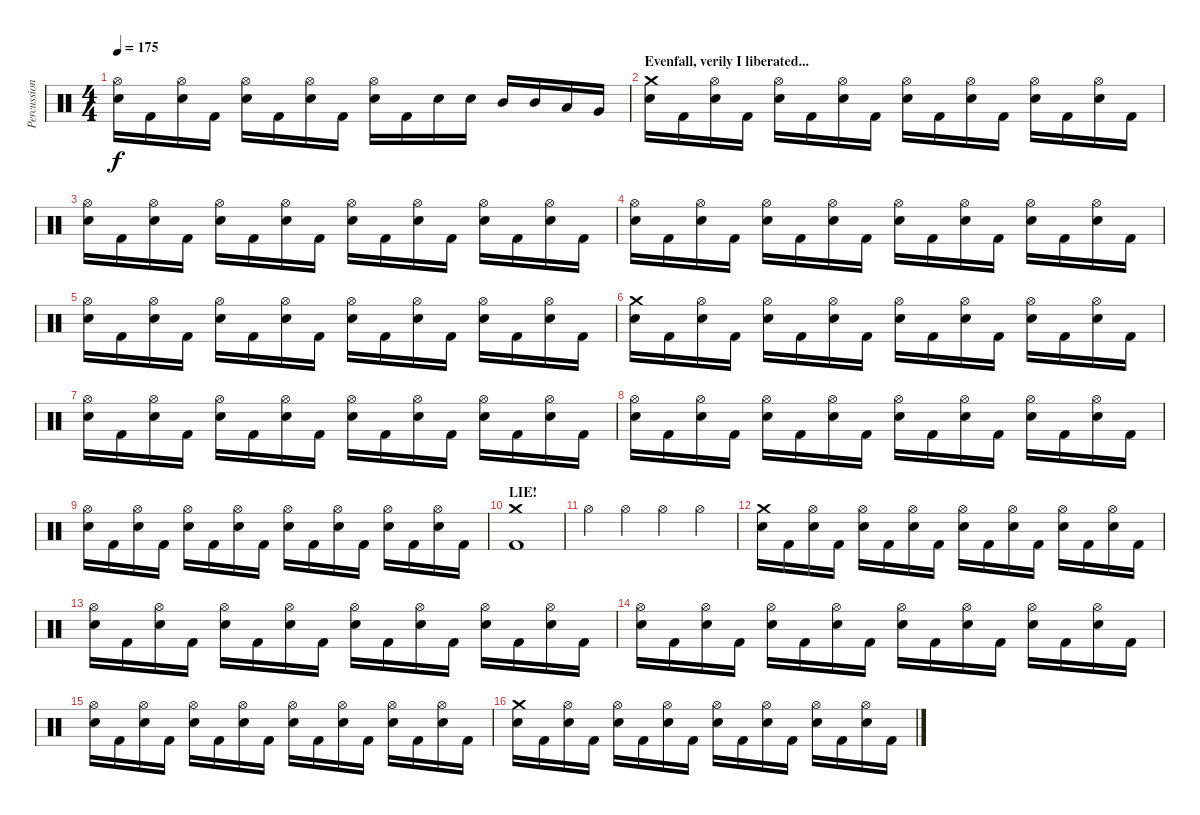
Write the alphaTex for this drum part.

\track ("Percussion" "Percussion") {instrument percussion}
\staff {score}
\articulation defaults
\ts (4 4)
\tempo 175
\clef neutral
\ks c
("Hi-Hat (open)" "Snare (hit) 2").16{dy f} "Kick (hit) 2".16 ("Hi-Hat (open)" "Snare (hit) 2").16 "Kick (hit) 2".16 ("Hi-Hat (open)" "Snare (hit) 2").16 "Kick (hit) 2".16 ("Hi-Hat (open)" "Snare (hit) 2").16 "Kick (hit) 2".16 ("Hi-Hat (open)" "Snare (hit) 2").16 "Kick (hit) 2".16 "Snare (hit) 2".16 "Snare (hit) 2".16 "Mid Tom (hit)".16 "Mid Tom (hit)".16 "Low Tom (hit)".16 "Very Low Tom (hit)".16 |
\section ("" "Evenfall, verily I liberated...")
("Crash medium (hit)" "Snare (hit) 2").16 "Kick (hit) 2".16 ("Hi-Hat (open)" "Snare (hit) 2").16 "Kick (hit) 2".16 ("Hi-Hat (open)" "Snare (hit) 2").16 "Kick (hit) 2".16 ("Hi-Hat (open)" "Snare (hit) 2").16 "Kick (hit) 2".16 ("Hi-Hat (open)" "Snare (hit) 2").16 "Kick (hit) 2".16 ("Hi-Hat (open)" "Snare (hit) 2").16 "Kick (hit) 2".16 ("Hi-Hat (open)" "Snare (hit) 2").16 "Kick (hit) 2".16 ("Hi-Hat (open)" "Snare (hit) 2").16 "Kick (hit) 2".16 |
("Hi-Hat (open)" "Snare (hit) 2").16 "Kick (hit) 2".16 ("Hi-Hat (open)" "Snare (hit) 2").16 "Kick (hit) 2".16 ("Hi-Hat (open)" "Snare (hit) 2").16 "Kick (hit) 2".16 ("Hi-Hat (open)" "Snare (hit) 2").16 "Kick (hit) 2".16 ("Hi-Hat (open)" "Snare (hit) 2").16 "Kick (hit) 2".16 ("Hi-Hat (open)" "Snare (hit) 2").16 "Kick (hit) 2".16 ("Hi-Hat (open)" "Snare (hit) 2").16 "Kick (hit) 2".16 ("Hi-Hat (open)" "Snare (hit) 2").16 "Kick (hit) 2".16 |
("Hi-Hat (open)" "Snare (hit) 2").16 "Kick (hit) 2".16 ("Hi-Hat (open)" "Snare (hit) 2").16 "Kick (hit) 2".16 ("Hi-Hat (open)" "Snare (hit) 2").16 "Kick (hit) 2".16 ("Hi-Hat (open)" "Snare (hit) 2").16 "Kick (hit) 2".16 ("Hi-Hat (open)" "Snare (hit) 2").16 "Kick (hit) 2".16 ("Hi-Hat (open)" "Snare (hit) 2").16 "Kick (hit) 2".16 ("Hi-Hat (open)" "Snare (hit) 2").16 "Kick (hit) 2".16 ("Hi-Hat (open)" "Snare (hit) 2").16 "Kick (hit) 2".16 |
("Hi-Hat (open)" "Snare (hit) 2").16 "Kick (hit) 2".16 ("Hi-Hat (open)" "Snare (hit) 2").16 "Kick (hit) 2".16 ("Hi-Hat (open)" "Snare (hit) 2").16 "Kick (hit) 2".16 ("Hi-Hat (open)" "Snare (hit) 2").16 "Kick (hit) 2".16 ("Hi-Hat (open)" "Snare (hit) 2").16 "Kick (hit) 2".16 ("Hi-Hat (open)" "Snare (hit) 2").16 "Kick (hit) 2".16 ("Hi-Hat (open)" "Snare (hit) 2").16 "Kick (hit) 2".16 ("Hi-Hat (open)" "Snare (hit) 2").16 "Kick (hit) 2".16 |
("Crash medium (hit)" "Snare (hit) 2").16 "Kick (hit) 2".16 ("Hi-Hat (open)" "Snare (hit) 2").16 "Kick (hit) 2".16 ("Hi-Hat (open)" "Snare (hit) 2").16 "Kick (hit) 2".16 ("Hi-Hat (open)" "Snare (hit) 2").16 "Kick (hit) 2".16 ("Hi-Hat (open)" "Snare (hit) 2").16 "Kick (hit) 2".16 ("Hi-Hat (open)" "Snare (hit) 2").16 "Kick (hit) 2".16 ("Hi-Hat (open)" "Snare (hit) 2").16 "Kick (hit) 2".16 ("Hi-Hat (open)" "Snare (hit) 2").16 "Kick (hit) 2".16 |
("Hi-Hat (open)" "Snare (hit) 2").16 "Kick (hit) 2".16 ("Hi-Hat (open)" "Snare (hit) 2").16 "Kick (hit) 2".16 ("Hi-Hat (open)" "Snare (hit) 2").16 "Kick (hit) 2".16 ("Hi-Hat (open)" "Snare (hit) 2").16 "Kick (hit) 2".16 ("Hi-Hat (open)" "Snare (hit) 2").16 "Kick (hit) 2".16 ("Hi-Hat (open)" "Snare (hit) 2").16 "Kick (hit) 2".16 ("Hi-Hat (open)" "Snare (hit) 2").16 "Kick (hit) 2".16 ("Hi-Hat (open)" "Snare (hit) 2").16 "Kick (hit) 2".16 |
("Hi-Hat (open)" "Snare (hit) 2").16 "Kick (hit) 2".16 ("Hi-Hat (open)" "Snare (hit) 2").16 "Kick (hit) 2".16 ("Hi-Hat (open)" "Snare (hit) 2").16 "Kick (hit) 2".16 ("Hi-Hat (open)" "Snare (hit) 2").16 "Kick (hit) 2".16 ("Hi-Hat (open)" "Snare (hit) 2").16 "Kick (hit) 2".16 ("Hi-Hat (open)" "Snare (hit) 2").16 "Kick (hit) 2".16 ("Hi-Hat (open)" "Snare (hit) 2").16 "Kick (hit) 2".16 ("Hi-Hat (open)" "Snare (hit) 2").16 "Kick (hit) 2".16 |
("Hi-Hat (open)" "Snare (hit) 2").16 "Kick (hit) 2".16 ("Hi-Hat (open)" "Snare (hit) 2").16 "Kick (hit) 2".16 ("Hi-Hat (open)" "Snare (hit) 2").16 "Kick (hit) 2".16 ("Hi-Hat (open)" "Snare (hit) 2").16 "Kick (hit) 2".16 ("Hi-Hat (open)" "Snare (hit) 2").16 "Kick (hit) 2".16 ("Hi-Hat (open)" "Snare (hit) 2").16 "Kick (hit) 2".16 ("Hi-Hat (open)" "Snare (hit) 2").16 "Kick (hit) 2".16 ("Hi-Hat (open)" "Snare (hit) 2").16 "Kick (hit) 2".16 |
\section ("" "LIE!")
("Crash medium (hit)" "Kick (hit) 2").1 |
"Hi-Hat (open)".4 "Hi-Hat (open)".4 "Hi-Hat (open)".4 "Hi-Hat (open)".4 |
("Crash medium (hit)" "Snare (hit) 2").16 "Kick (hit) 2".16 ("Hi-Hat (open)" "Snare (hit) 2").16 "Kick (hit) 2".16 ("Hi-Hat (open)" "Snare (hit) 2").16 "Kick (hit) 2".16 ("Hi-Hat (open)" "Snare (hit) 2").16 "Kick (hit) 2".16 ("Hi-Hat (open)" "Snare (hit) 2").16 "Kick (hit) 2".16 ("Hi-Hat (open)" "Snare (hit) 2").16 "Kick (hit) 2".16 ("Hi-Hat (open)" "Snare (hit) 2").16 "Kick (hit) 2".16 ("Hi-Hat (open)" "Snare (hit) 2").16 "Kick (hit) 2".16 |
("Hi-Hat (open)" "Snare (hit) 2").16 "Kick (hit) 2".16 ("Hi-Hat (open)" "Snare (hit) 2").16 "Kick (hit) 2".16 ("Hi-Hat (open)" "Snare (hit) 2").16 "Kick (hit) 2".16 ("Hi-Hat (open)" "Snare (hit) 2").16 "Kick (hit) 2".16 ("Hi-Hat (open)" "Snare (hit) 2").16 "Kick (hit) 2".16 ("Hi-Hat (open)" "Snare (hit) 2").16 "Kick (hit) 2".16 ("Hi-Hat (open)" "Snare (hit) 2").16 "Kick (hit) 2".16 ("Hi-Hat (open)" "Snare (hit) 2").16 "Kick (hit) 2".16 |
("Hi-Hat (open)" "Snare (hit) 2").16 "Kick (hit) 2".16 ("Hi-Hat (open)" "Snare (hit) 2").16 "Kick (hit) 2".16 ("Hi-Hat (open)" "Snare (hit) 2").16 "Kick (hit) 2".16 ("Hi-Hat (open)" "Snare (hit) 2").16 "Kick (hit) 2".16 ("Hi-Hat (open)" "Snare (hit) 2").16 "Kick (hit) 2".16 ("Hi-Hat (open)" "Snare (hit) 2").16 "Kick (hit) 2".16 ("Hi-Hat (open)" "Snare (hit) 2").16 "Kick (hit) 2".16 ("Hi-Hat (open)" "Snare (hit) 2").16 "Kick (hit) 2".16 |
("Hi-Hat (open)" "Snare (hit) 2").16 "Kick (hit) 2".16 ("Hi-Hat (open)" "Snare (hit) 2").16 "Kick (hit) 2".16 ("Hi-Hat (open)" "Snare (hit) 2").16 "Kick (hit) 2".16 ("Hi-Hat (open)" "Snare (hit) 2").16 "Kick (hit) 2".16 ("Hi-Hat (open)" "Snare (hit) 2").16 "Kick (hit) 2".16 ("Hi-Hat (open)" "Snare (hit) 2").16 "Kick (hit) 2".16 ("Hi-Hat (open)" "Snare (hit) 2").16 "Kick (hit) 2".16 ("Hi-Hat (open)" "Snare (hit) 2").16 "Kick (hit) 2".16 |
("Crash medium (hit)" "Snare (hit) 2").16 "Kick (hit) 2".16 ("Hi-Hat (open)" "Snare (hit) 2").16 "Kick (hit) 2".16 ("Hi-Hat (open)" "Snare (hit) 2").16 "Kick (hit) 2".16 ("Hi-Hat (open)" "Snare (hit) 2").16 "Kick (hit) 2".16 ("Hi-Hat (open)" "Snare (hit) 2").16 "Kick (hit) 2".16 ("Hi-Hat (open)" "Snare (hit) 2").16 "Kick (hit) 2".16 ("Hi-Hat (open)" "Snare (hit) 2").16 "Kick (hit) 2".16 ("Hi-Hat (open)" "Snare (hit) 2").16 "Kick (hit) 2".16
